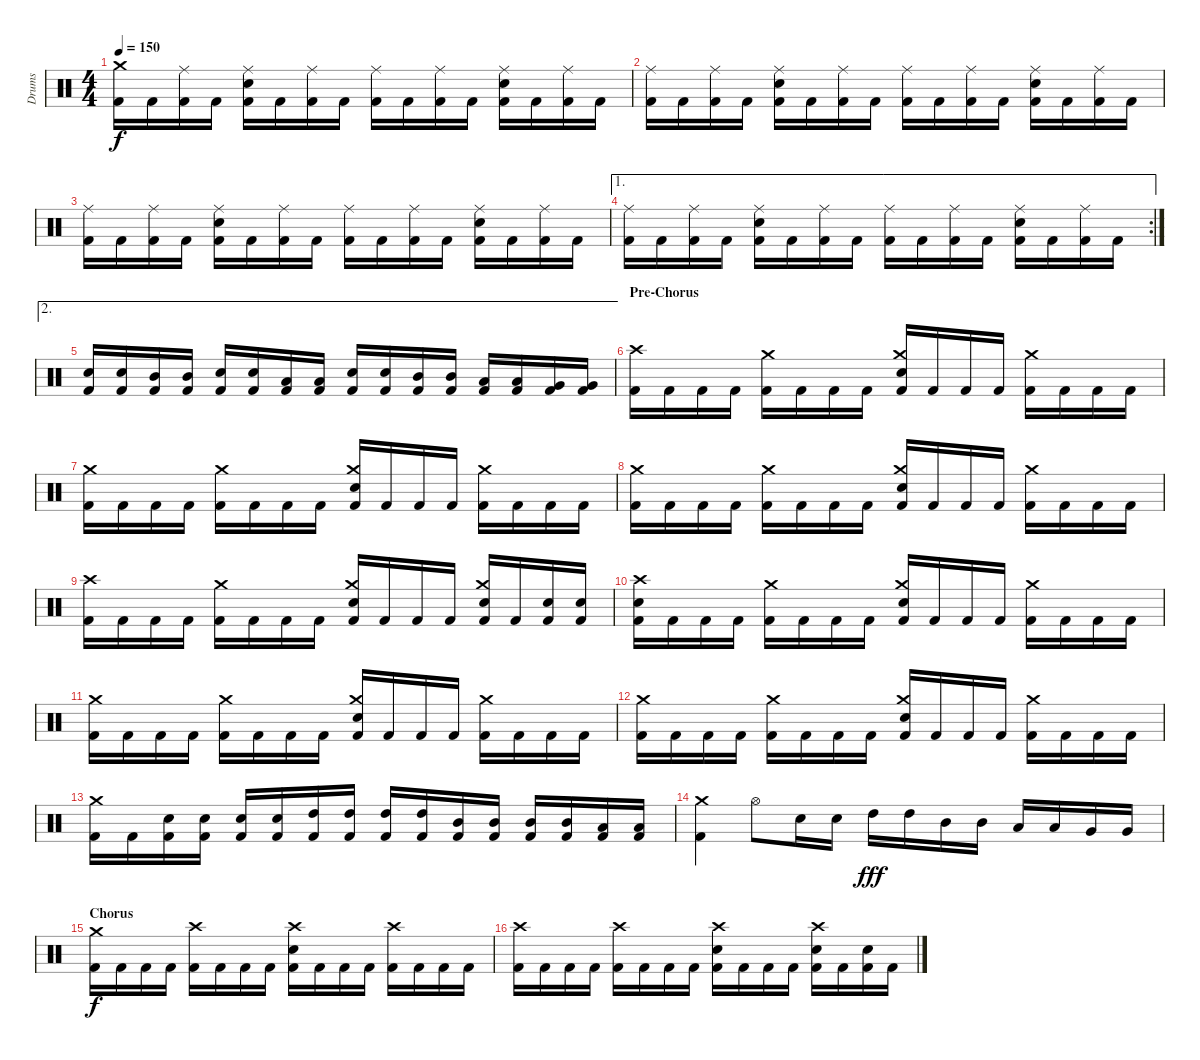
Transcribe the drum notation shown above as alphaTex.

\track ("Drums" "Drums") {instrument percussion}
\staff {score}
\articulation defaults
\ts (4 4)
\tempo 150
\clef neutral
\ks c
("Kick (hit) 2" "Crash medium (hit)").16{dy f} "Kick (hit) 2".16 ("Kick (hit) 2" "Ride (middle)").16 "Kick (hit) 2".16 ("Kick (hit) 2" "Electric Snare (hit)" "Ride (middle)").16 "Kick (hit) 2".16 ("Kick (hit) 2" "Ride (middle)").16 "Kick (hit) 2".16 ("Kick (hit) 2" "Ride (middle)").16 "Kick (hit) 2".16 ("Kick (hit) 2" "Ride (middle)").16 "Kick (hit) 2".16 ("Kick (hit) 2" "Electric Snare (hit)" "Ride (middle)").16 "Kick (hit) 2".16 ("Kick (hit) 2" "Ride (middle)").16 "Kick (hit) 2".16 |
("Kick (hit) 2" "Ride (middle)").16 "Kick (hit) 2".16 ("Kick (hit) 2" "Ride (middle)").16 "Kick (hit) 2".16 ("Kick (hit) 2" "Electric Snare (hit)" "Ride (middle)").16 "Kick (hit) 2".16 ("Kick (hit) 2" "Ride (middle)").16 "Kick (hit) 2".16 ("Kick (hit) 2" "Ride (middle)").16 "Kick (hit) 2".16 ("Kick (hit) 2" "Ride (middle)").16 "Kick (hit) 2".16 ("Kick (hit) 2" "Electric Snare (hit)" "Ride (middle)").16 "Kick (hit) 2".16 ("Kick (hit) 2" "Ride (middle)").16 "Kick (hit) 2".16 |
("Kick (hit) 2" "Ride (middle)").16 "Kick (hit) 2".16 ("Kick (hit) 2" "Ride (middle)").16 "Kick (hit) 2".16 ("Kick (hit) 2" "Electric Snare (hit)" "Ride (middle)").16 "Kick (hit) 2".16 ("Kick (hit) 2" "Ride (middle)").16 "Kick (hit) 2".16 ("Kick (hit) 2" "Ride (middle)").16 "Kick (hit) 2".16 ("Kick (hit) 2" "Ride (middle)").16 "Kick (hit) 2".16 ("Kick (hit) 2" "Electric Snare (hit)" "Ride (middle)").16 "Kick (hit) 2".16 ("Kick (hit) 2" "Ride (middle)").16 "Kick (hit) 2".16 |
\ae 1
\rc 2
("Kick (hit) 2" "Ride (middle)").16 "Kick (hit) 2".16 ("Kick (hit) 2" "Ride (middle)").16 "Kick (hit) 2".16 ("Kick (hit) 2" "Electric Snare (hit)" "Ride (middle)").16 "Kick (hit) 2".16 ("Kick (hit) 2" "Ride (middle)").16 "Kick (hit) 2".16 ("Kick (hit) 2" "Ride (middle)").16 "Kick (hit) 2".16 ("Kick (hit) 2" "Ride (middle)").16 "Kick (hit) 2".16 ("Kick (hit) 2" "Electric Snare (hit)" "Ride (middle)").16 "Kick (hit) 2".16 ("Kick (hit) 2" "Ride (middle)").16 "Kick (hit) 2".16 |
\ae 2
("Kick (hit) 2" "Electric Snare (hit)").16 ("Kick (hit) 2" "Electric Snare (hit)").16 ("Kick (hit) 2" "Mid Tom (hit)").16 ("Kick (hit) 2" "Mid Tom (hit)").16 ("Kick (hit) 2" "Electric Snare (hit)").16 ("Kick (hit) 2" "Electric Snare (hit)").16 ("Kick (hit) 2" "Low Tom (hit)").16 ("Kick (hit) 2" "Low Tom (hit)").16 ("Kick (hit) 2" "Electric Snare (hit)").16 ("Kick (hit) 2" "Electric Snare (hit)").16 ("Kick (hit) 2" "Mid Tom (hit)").16 ("Kick (hit) 2" "Mid Tom (hit)").16 ("Kick (hit) 2" "Low Tom (hit)").16 ("Kick (hit) 2" "Low Tom (hit)").16 ("Kick (hit) 2" "Very Low Tom (hit)").16 ("Kick (hit) 2" "Very Low Tom (hit)").16 |
\section ("" "Pre-Chorus")
("Kick (hit) 2" "Crash high (hit)").16 "Kick (hit) 2".16 "Kick (hit) 2".16 "Kick (hit) 2".16 ("Kick (hit) 2" "Crash medium (hit)").16 "Kick (hit) 2".16 "Kick (hit) 2".16 "Kick (hit) 2".16 ("Kick (hit) 2" "Electric Snare (hit)" "Crash medium (hit)").16 "Kick (hit) 2".16 "Kick (hit) 2".16 "Kick (hit) 2".16 ("Kick (hit) 2" "Crash medium (hit)").16 "Kick (hit) 2".16 "Kick (hit) 2".16 "Kick (hit) 2".16 |
("Kick (hit) 2" "Crash medium (hit)").16 "Kick (hit) 2".16 "Kick (hit) 2".16 "Kick (hit) 2".16 ("Kick (hit) 2" "Crash medium (hit)").16 "Kick (hit) 2".16 "Kick (hit) 2".16 "Kick (hit) 2".16 ("Kick (hit) 2" "Electric Snare (hit)" "Crash medium (hit)").16 "Kick (hit) 2".16 "Kick (hit) 2".16 "Kick (hit) 2".16 ("Kick (hit) 2" "Crash medium (hit)").16 "Kick (hit) 2".16 "Kick (hit) 2".16 "Kick (hit) 2".16 |
("Kick (hit) 2" "Crash medium (hit)").16 "Kick (hit) 2".16 "Kick (hit) 2".16 "Kick (hit) 2".16 ("Kick (hit) 2" "Crash medium (hit)").16 "Kick (hit) 2".16 "Kick (hit) 2".16 "Kick (hit) 2".16 ("Kick (hit) 2" "Electric Snare (hit)" "Crash medium (hit)").16 "Kick (hit) 2".16 "Kick (hit) 2".16 "Kick (hit) 2".16 ("Kick (hit) 2" "Crash medium (hit)").16 "Kick (hit) 2".16 "Kick (hit) 2".16 "Kick (hit) 2".16 |
("Kick (hit) 2" "Crash high (hit)").16 "Kick (hit) 2".16 "Kick (hit) 2".16 "Kick (hit) 2".16 ("Kick (hit) 2" "Crash medium (hit)").16 "Kick (hit) 2".16 "Kick (hit) 2".16 "Kick (hit) 2".16 ("Kick (hit) 2" "Electric Snare (hit)" "Crash medium (hit)").16 "Kick (hit) 2".16 "Kick (hit) 2".16 "Kick (hit) 2".16 ("Kick (hit) 2" "Electric Snare (hit)" "Crash medium (hit)").16 "Kick (hit) 2".16 ("Kick (hit) 2" "Electric Snare (hit)").16 ("Kick (hit) 2" "Electric Snare (hit)").16 |
("Kick (hit) 2" "Electric Snare (hit)" "Crash high (hit)").16 "Kick (hit) 2".16 "Kick (hit) 2".16 "Kick (hit) 2".16 ("Kick (hit) 2" "Crash medium (hit)").16 "Kick (hit) 2".16 "Kick (hit) 2".16 "Kick (hit) 2".16 ("Kick (hit) 2" "Electric Snare (hit)" "Crash medium (hit)").16 "Kick (hit) 2".16 "Kick (hit) 2".16 "Kick (hit) 2".16 ("Kick (hit) 2" "Crash medium (hit)").16 "Kick (hit) 2".16 "Kick (hit) 2".16 "Kick (hit) 2".16 |
("Kick (hit) 2" "Crash medium (hit)").16 "Kick (hit) 2".16 "Kick (hit) 2".16 "Kick (hit) 2".16 ("Kick (hit) 2" "Crash medium (hit)").16 "Kick (hit) 2".16 "Kick (hit) 2".16 "Kick (hit) 2".16 ("Kick (hit) 2" "Electric Snare (hit)" "Crash medium (hit)").16 "Kick (hit) 2".16 "Kick (hit) 2".16 "Kick (hit) 2".16 ("Kick (hit) 2" "Crash medium (hit)").16 "Kick (hit) 2".16 "Kick (hit) 2".16 "Kick (hit) 2".16 |
("Kick (hit) 2" "Crash medium (hit)").16 "Kick (hit) 2".16 "Kick (hit) 2".16 "Kick (hit) 2".16 ("Kick (hit) 2" "Crash medium (hit)").16 "Kick (hit) 2".16 "Kick (hit) 2".16 "Kick (hit) 2".16 ("Kick (hit) 2" "Electric Snare (hit)" "Crash medium (hit)").16 "Kick (hit) 2".16 "Kick (hit) 2".16 "Kick (hit) 2".16 ("Kick (hit) 2" "Crash medium (hit)").16 "Kick (hit) 2".16 "Kick (hit) 2".16 "Kick (hit) 2".16 |
("Kick (hit) 2" "Crash medium (hit)").16 "Kick (hit) 2".16 ("Kick (hit) 2" "Electric Snare (hit)").16 ("Kick (hit) 2" "Electric Snare (hit)").16 ("Kick (hit) 2" "Electric Snare (hit)").16 ("Kick (hit) 2" "Electric Snare (hit)").16 ("Kick (hit) 2" "High Tom (hit)").16 ("Kick (hit) 2" "High Tom (hit)").16 ("Kick (hit) 2" "High Tom (hit)").16 ("Kick (hit) 2" "High Tom (hit)").16 ("Kick (hit) 2" "Mid Tom (hit)").16 ("Kick (hit) 2" "Mid Tom (hit)").16 ("Kick (hit) 2" "Mid Tom (hit)").16 ("Kick (hit) 2" "Mid Tom (hit)").16 ("Kick (hit) 2" "Low Tom (hit)").16 ("Kick (hit) 2" "Low Tom (hit)").16 |
("Kick (hit) 2" "Crash medium (hit)").4 "Hi-Hat (open)".8 "Electric Snare (hit)".16 "Electric Snare (hit)".16 "High Tom (hit)".16{dy fff} "High Tom (hit)".16 "Mid Tom (hit)".16 "Mid Tom (hit)".16 "Low Tom (hit)".16 "Low Tom (hit)".16 "Very Low Tom (hit)".16 "Very Low Tom (hit)".16 |
\section ("" "Chorus")
("Kick (hit) 2" "Crash medium (hit)").16{dy f} "Kick (hit) 2".16 "Kick (hit) 2".16 "Kick (hit) 2".16 ("Kick (hit) 2" "Crash high (hit)").16 "Kick (hit) 2".16 "Kick (hit) 2".16 "Kick (hit) 2".16 ("Kick (hit) 2" "Electric Snare (hit)" "Crash high (hit)").16 "Kick (hit) 2".16 "Kick (hit) 2".16 "Kick (hit) 2".16 ("Kick (hit) 2" "Crash high (hit)").16 "Kick (hit) 2".16 "Kick (hit) 2".16 "Kick (hit) 2".16 |
("Kick (hit) 2" "Crash high (hit)").16 "Kick (hit) 2".16 "Kick (hit) 2".16 "Kick (hit) 2".16 ("Kick (hit) 2" "Crash high (hit)").16 "Kick (hit) 2".16 "Kick (hit) 2".16 "Kick (hit) 2".16 ("Kick (hit) 2" "Electric Snare (hit)" "Crash high (hit)").16 "Kick (hit) 2".16 "Kick (hit) 2".16 "Kick (hit) 2".16 ("Kick (hit) 2" "Electric Snare (hit)" "Crash high (hit)").16 "Kick (hit) 2".16 ("Kick (hit) 2" "Electric Snare (hit)").16 "Kick (hit) 2".16
